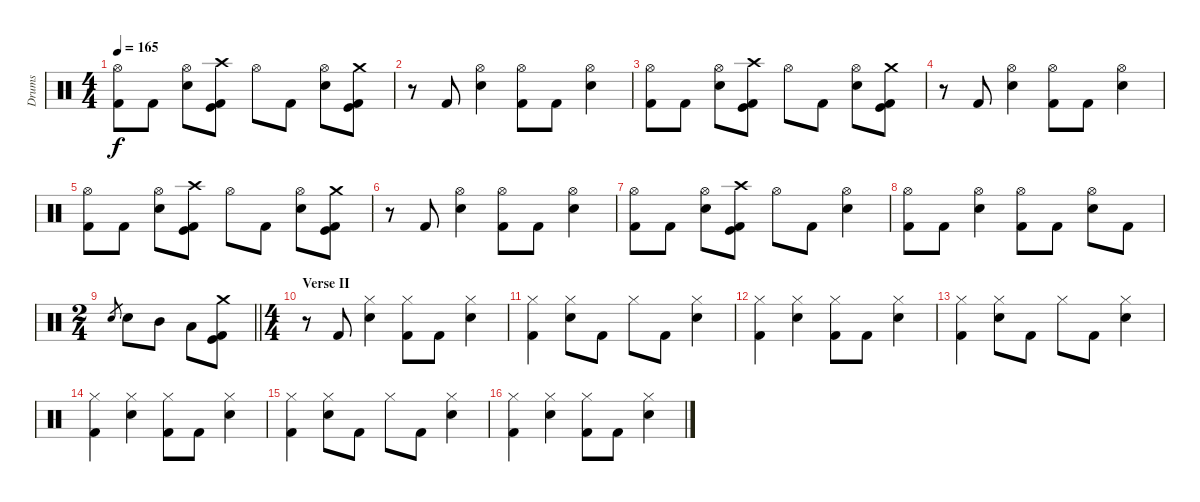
\track ("Drums" "Drums") {instrument percussion}
\staff {score}
\articulation defaults
\ts (4 4)
\tempo 165
\clef neutral
\ks c
("Hi-Hat (open)" "Kick (hit) 2").8{dy f} "Kick (hit) 2".8 ("Hi-Hat (open)" "Electric Snare (hit)").8 ("Crash high (hit)" "Kick (hit) 2" "Kick (hit)").8 "Hi-Hat (open)".8 "Kick (hit) 2".8 ("Hi-Hat (open)" "Electric Snare (hit)").8 ("Crash medium (hit)" "Kick (hit) 2" "Kick (hit)").8 |
r.8 "Kick (hit) 2".8 ("Hi-Hat (open)" "Electric Snare (hit)").4 ("Hi-Hat (open)" "Kick (hit) 2").8 "Kick (hit) 2".8 ("Hi-Hat (open)" "Electric Snare (hit)").4 |
("Hi-Hat (open)" "Kick (hit) 2").8 "Kick (hit) 2".8 ("Hi-Hat (open)" "Electric Snare (hit)").8 ("Crash high (hit)" "Kick (hit) 2" "Kick (hit)").8 "Hi-Hat (open)".8 "Kick (hit) 2".8 ("Hi-Hat (open)" "Electric Snare (hit)").8 ("Crash medium (hit)" "Kick (hit) 2" "Kick (hit)").8 |
r.8 "Kick (hit) 2".8 ("Hi-Hat (open)" "Electric Snare (hit)").4 ("Hi-Hat (open)" "Kick (hit) 2").8 "Kick (hit) 2".8 ("Hi-Hat (open)" "Electric Snare (hit)").4 |
("Hi-Hat (open)" "Kick (hit) 2").8 "Kick (hit) 2".8 ("Hi-Hat (open)" "Electric Snare (hit)").8 ("Crash high (hit)" "Kick (hit) 2" "Kick (hit)").8 "Hi-Hat (open)".8 "Kick (hit) 2".8 ("Hi-Hat (open)" "Electric Snare (hit)").8 ("Crash medium (hit)" "Kick (hit) 2" "Kick (hit)").8 |
r.8 "Kick (hit) 2".8 ("Hi-Hat (open)" "Electric Snare (hit)").4 ("Hi-Hat (open)" "Kick (hit) 2").8 "Kick (hit) 2".8 ("Hi-Hat (open)" "Electric Snare (hit)").4 |
("Hi-Hat (open)" "Kick (hit) 2").8 "Kick (hit) 2".8 ("Hi-Hat (open)" "Electric Snare (hit)").8 ("Crash high (hit)" "Kick (hit) 2" "Kick (hit)").8 "Hi-Hat (open)".8 "Kick (hit) 2".8 ("Hi-Hat (open)" "Electric Snare (hit)").4 |
("Hi-Hat (open)" "Kick (hit) 2").8 "Kick (hit) 2".8 ("Hi-Hat (open)" "Electric Snare (hit)").4 ("Hi-Hat (open)" "Kick (hit) 2").8 "Kick (hit) 2".8 ("Hi-Hat (open)" "Electric Snare (hit)").8 "Kick (hit) 2".8 |
\ts (2 4)
\barLineRight lightlight "Electric Snare (hit)".8{gr} "Electric Snare (hit)".8 "Mid Tom (hit)".8 "Low Tom (hit)".8
("Crash medium (hit)" "Kick (hit) 2" "Kick (hit)").8 |
\ts (4 4)
\section ("" "Verse II")
r.8 "Kick (hit) 2".8 ("Hi-Hat (closed)" "Electric Snare (hit)").4 ("Hi-Hat (closed)" "Kick (hit) 2").8 "Kick (hit) 2".8 ("Hi-Hat (closed)" "Electric Snare (hit)").4 |
("Hi-Hat (closed)" "Kick (hit) 2").4 ("Hi-Hat (closed)" "Electric Snare (hit)").8 "Kick (hit) 2".8 "Hi-Hat (closed)".8 "Kick (hit) 2".8 ("Hi-Hat (closed)" "Electric Snare (hit)").4 |
("Hi-Hat (closed)" "Kick (hit) 2").4 ("Hi-Hat (closed)" "Electric Snare (hit)").4 ("Hi-Hat (closed)" "Kick (hit) 2").8 "Kick (hit) 2".8 ("Hi-Hat (closed)" "Electric Snare (hit)").4 |
("Hi-Hat (closed)" "Kick (hit) 2").4 ("Hi-Hat (closed)" "Electric Snare (hit)").8 "Kick (hit) 2".8 "Hi-Hat (closed)".8 "Kick (hit) 2".8 ("Hi-Hat (closed)" "Electric Snare (hit)").4 |
("Hi-Hat (closed)" "Kick (hit) 2").4 ("Hi-Hat (closed)" "Electric Snare (hit)").4 ("Hi-Hat (closed)" "Kick (hit) 2").8 "Kick (hit) 2".8 ("Hi-Hat (closed)" "Electric Snare (hit)").4 |
("Hi-Hat (closed)" "Kick (hit) 2").4 ("Hi-Hat (closed)" "Electric Snare (hit)").8 "Kick (hit) 2".8 "Hi-Hat (closed)".8 "Kick (hit) 2".8 ("Hi-Hat (closed)" "Electric Snare (hit)").4 |
("Hi-Hat (closed)" "Kick (hit) 2").4 ("Hi-Hat (closed)" "Electric Snare (hit)").4 ("Hi-Hat (closed)" "Kick (hit) 2").8 "Kick (hit) 2".8 ("Hi-Hat (closed)" "Electric Snare (hit)").4
